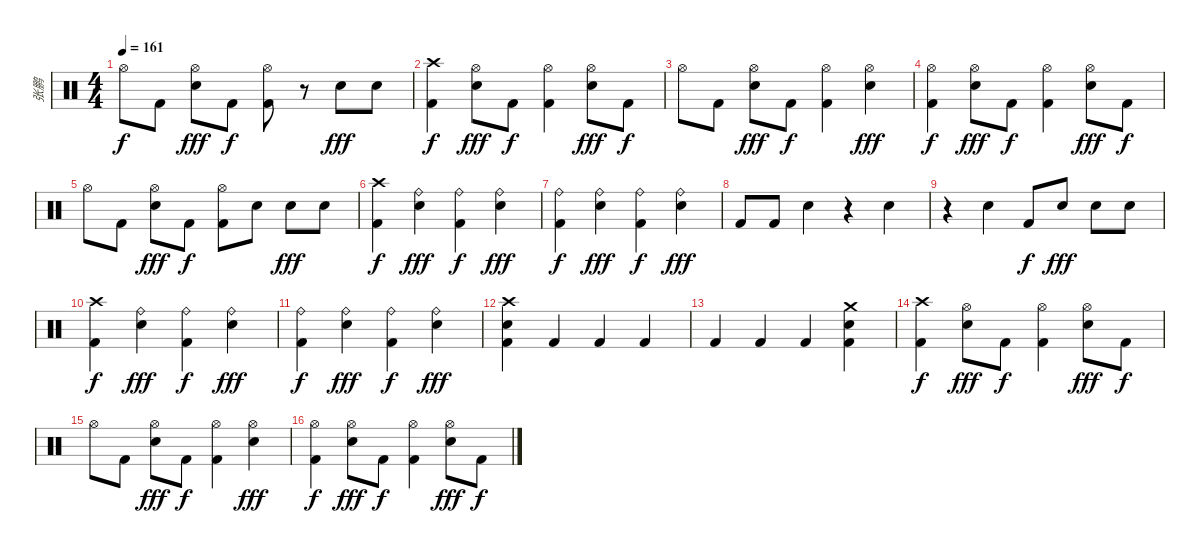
\track ("张鹏" "张鹏") {instrument percussion}
\staff {score}
\articulation defaults
\ts (4 4)
\tempo 161
\clef neutral
\ks c "Hi-Hat (open)".8{dy f} "Kick (hit) 2".8
("Hi-Hat (open)" "Electric Snare (hit)").8{dy fff} "Kick (hit) 2".8{dy f} ("Hi-Hat (open)" "Kick (hit) 2").8 r.8 "Electric Snare (hit)".8{dy fff} "Electric Snare (hit)".8 |
("Crash high (hit)" "Kick (hit) 2").4{dy f} ("Hi-Hat (open)" "Electric Snare (hit)").8{dy fff} "Kick (hit) 2".8{dy f} ("Hi-Hat (open)" "Kick (hit) 2").4 ("Hi-Hat (open)" "Electric Snare (hit)").8{dy fff} "Kick (hit) 2".8{dy f} |
"Hi-Hat (open)".8 "Kick (hit) 2".8 ("Hi-Hat (open)" "Electric Snare (hit)").8{dy fff} "Kick (hit) 2".8{dy f} ("Hi-Hat (open)" "Kick (hit) 2").4 ("Hi-Hat (open)" "Electric Snare (hit)").4{dy fff} |
("Hi-Hat (open)" "Kick (hit) 2").4{dy f} ("Hi-Hat (open)" "Electric Snare (hit)").8{dy fff} "Kick (hit) 2".8{dy f} ("Hi-Hat (open)" "Kick (hit) 2").4 ("Hi-Hat (open)" "Electric Snare (hit)").8{dy fff} "Kick (hit) 2".8{dy f} |
"Hi-Hat (open)".8 "Kick (hit) 2".8 ("Hi-Hat (open)" "Electric Snare (hit)").8{dy fff} "Kick (hit) 2".8{dy f} ("Hi-Hat (open)" "Kick (hit) 2").8 "Electric Snare (hit)".8 "Electric Snare (hit)".8{dy fff} "Electric Snare (hit)".8 |
("Crash high (hit)" "Kick (hit) 2").4{dy f} ("Ride (bell)" "Electric Snare (hit)").4{dy fff} ("Ride (bell)" "Kick (hit) 2").4{dy f} ("Ride (bell)" "Electric Snare (hit)").4{dy fff} |
("Ride (bell)" "Kick (hit) 2").4{dy f} ("Ride (bell)" "Electric Snare (hit)").4{dy fff} ("Ride (bell)" "Kick (hit) 2").4{dy f} ("Ride (bell)" "Electric Snare (hit)").4{dy fff} |
"Kick (hit) 2".8 "Kick (hit) 2".8 "Electric Snare (hit)".4 r.4 "Electric Snare (hit)".4 |
r.4 "Electric Snare (hit)".4 "Kick (hit) 2".8{dy f} "Electric Snare (hit)".8{dy fff} "Electric Snare (hit)".8 "Electric Snare (hit)".8 |
("Crash high (hit)" "Kick (hit) 2").4{dy f} ("Ride (bell)" "Electric Snare (hit)").4{dy fff} ("Ride (bell)" "Kick (hit) 2").4{dy f} ("Ride (bell)" "Electric Snare (hit)").4{dy fff} |
("Ride (bell)" "Kick (hit) 2").4{dy f} ("Ride (bell)" "Electric Snare (hit)").4{dy fff} ("Ride (bell)" "Kick (hit) 2").4{dy f} ("Ride (bell)" "Electric Snare (hit)").4{dy fff} |
("Crash high (hit)" "Electric Snare (hit)" "Kick (hit) 2").4 "Kick (hit) 2".4 "Kick (hit) 2".4 "Kick (hit) 2".4 |
"Kick (hit) 2".4 "Kick (hit) 2".4 "Kick (hit) 2".4 ("Crash medium (hit)" "Electric Snare (hit)" "Kick (hit) 2").4 |
("Crash high (hit)" "Kick (hit) 2").4{dy f} ("Hi-Hat (open)" "Electric Snare (hit)").8{dy fff} "Kick (hit) 2".8{dy f} ("Hi-Hat (open)" "Kick (hit) 2").4 ("Hi-Hat (open)" "Electric Snare (hit)").8{dy fff} "Kick (hit) 2".8{dy f} |
"Hi-Hat (open)".8 "Kick (hit) 2".8 ("Hi-Hat (open)" "Electric Snare (hit)").8{dy fff} "Kick (hit) 2".8{dy f} ("Hi-Hat (open)" "Kick (hit) 2").4 ("Hi-Hat (open)" "Electric Snare (hit)").4{dy fff} |
("Hi-Hat (open)" "Kick (hit) 2").4{dy f} ("Hi-Hat (open)" "Electric Snare (hit)").8{dy fff} "Kick (hit) 2".8{dy f} ("Hi-Hat (open)" "Kick (hit) 2").4 ("Hi-Hat (open)" "Electric Snare (hit)").8{dy fff} "Kick (hit) 2".8{dy f}
